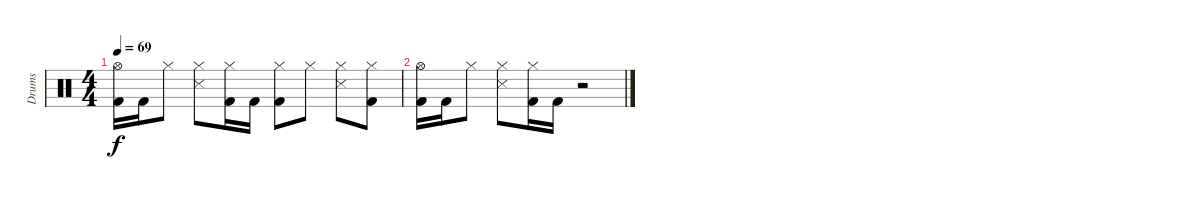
\track ("Drums" "Drums") {instrument percussion}
\staff {score}
\articulation defaults
\ts (4 4)
\tempo 69
\clef neutral
\ks c
("Hi-Hat (open)" "Kick (hit) 2").16{dy f} "Kick (hit) 2".16 "Hi-Hat (closed)".8 ("Hi-Hat (closed)" "Snare (side stick) 3").8 ("Hi-Hat (closed)" "Kick (hit) 2").16 "Kick (hit) 2".16 ("Hi-Hat (closed)" "Kick (hit) 2").8 "Hi-Hat (closed)".8 ("Hi-Hat (closed)" "Snare (side stick) 3").8 ("Hi-Hat (closed)" "Kick (hit) 2").8 |
("Hi-Hat (open)" "Kick (hit) 2").16 "Kick (hit) 2".16 "Hi-Hat (closed)".8 ("Hi-Hat (closed)" "Snare (side stick) 3").8 ("Hi-Hat (closed)" "Kick (hit) 2").16 "Kick (hit) 2".16 r.2
